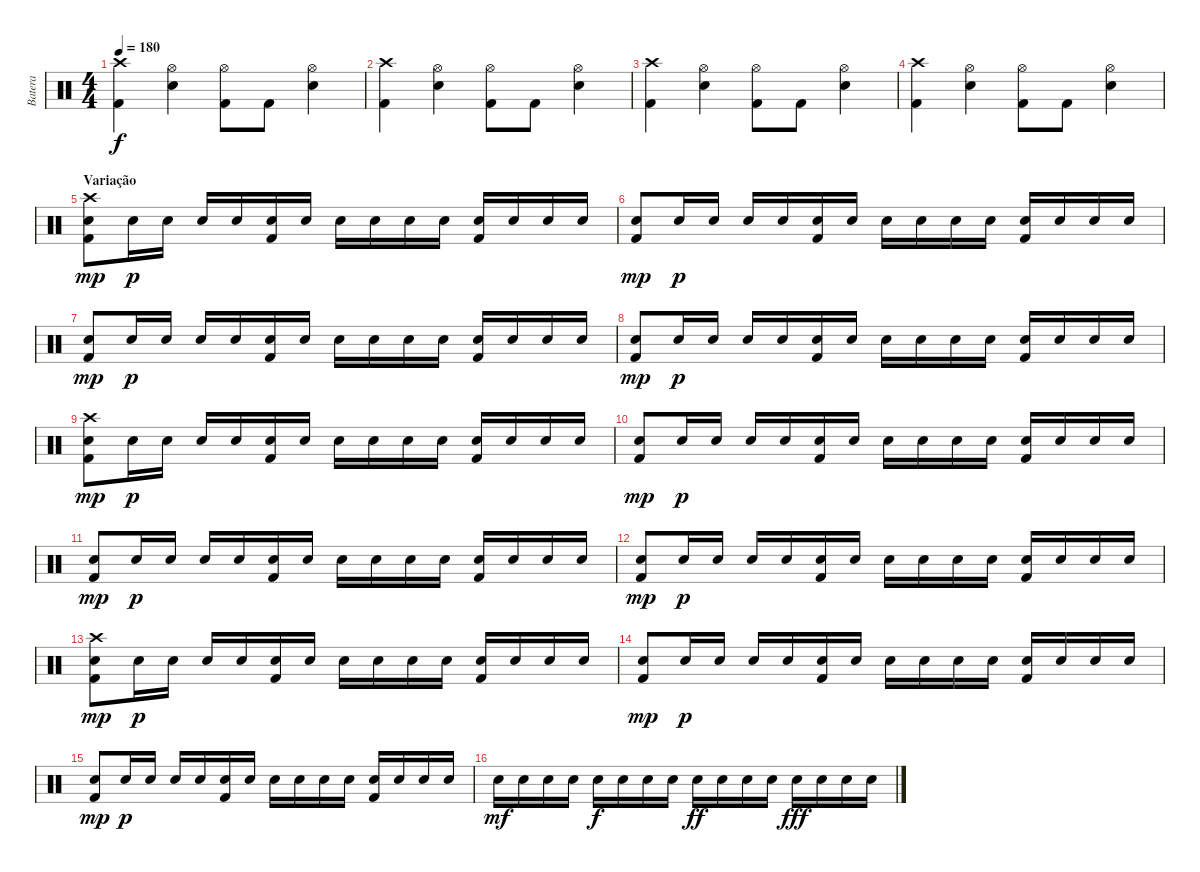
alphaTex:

\track ("Batera" "Batera") {instrument percussion}
\staff {score}
\articulation defaults
\ts (4 4)
\tempo 180
\clef neutral
\ks c
("Crash high (hit)" "Kick (hit) 2").4{dy f} ("Hi-Hat (open)" "Snare (hit) 2").4 ("Hi-Hat (open)" "Kick (hit) 2").8 "Kick (hit) 2".8 ("Hi-Hat (open)" "Snare (hit) 2").4 |
("Crash high (hit)" "Kick (hit) 2").4 ("Hi-Hat (open)" "Snare (hit) 2").4 ("Hi-Hat (open)" "Kick (hit) 2").8 "Kick (hit) 2".8 ("Hi-Hat (open)" "Snare (hit) 2").4 |
("Crash high (hit)" "Kick (hit) 2").4 ("Hi-Hat (open)" "Snare (hit) 2").4 ("Hi-Hat (open)" "Kick (hit) 2").8 "Kick (hit) 2".8 ("Hi-Hat (open)" "Snare (hit) 2").4 |
("Crash high (hit)" "Kick (hit) 2").4 ("Hi-Hat (open)" "Snare (hit) 2").4 ("Hi-Hat (open)" "Kick (hit) 2").8 "Kick (hit) 2".8 ("Hi-Hat (open)" "Snare (hit) 2").4 |
\section ("" "Variação")
("Crash high (hit)" "Snare (hit) 2" "Kick (hit) 2").8{dy mp} "Snare (hit) 2".16{dy p} "Snare (hit) 2".16 "Snare (hit) 2".16 "Snare (hit) 2".16 ("Kick (hit) 2" "Snare (hit) 2").16 "Snare (hit) 2".16 "Snare (hit) 2".16 "Snare (hit) 2".16 "Snare (hit) 2".16 "Snare (hit) 2".16 ("Kick (hit) 2" "Snare (hit) 2").16 "Snare (hit) 2".16 "Snare (hit) 2".16 "Snare (hit) 2".16 |
("Snare (hit) 2" "Kick (hit) 2").8{dy mp} "Snare (hit) 2".16{dy p} "Snare (hit) 2".16 "Snare (hit) 2".16 "Snare (hit) 2".16 ("Kick (hit) 2" "Snare (hit) 2").16 "Snare (hit) 2".16 "Snare (hit) 2".16 "Snare (hit) 2".16 "Snare (hit) 2".16 "Snare (hit) 2".16 ("Kick (hit) 2" "Snare (hit) 2").16 "Snare (hit) 2".16 "Snare (hit) 2".16 "Snare (hit) 2".16 |
("Snare (hit) 2" "Kick (hit) 2").8{dy mp} "Snare (hit) 2".16{dy p} "Snare (hit) 2".16 "Snare (hit) 2".16 "Snare (hit) 2".16 ("Kick (hit) 2" "Snare (hit) 2").16 "Snare (hit) 2".16 "Snare (hit) 2".16 "Snare (hit) 2".16 "Snare (hit) 2".16 "Snare (hit) 2".16 ("Kick (hit) 2" "Snare (hit) 2").16 "Snare (hit) 2".16 "Snare (hit) 2".16 "Snare (hit) 2".16 |
("Snare (hit) 2" "Kick (hit) 2").8{dy mp} "Snare (hit) 2".16{dy p} "Snare (hit) 2".16 "Snare (hit) 2".16 "Snare (hit) 2".16 ("Kick (hit) 2" "Snare (hit) 2").16 "Snare (hit) 2".16 "Snare (hit) 2".16 "Snare (hit) 2".16 "Snare (hit) 2".16 "Snare (hit) 2".16 ("Kick (hit) 2" "Snare (hit) 2").16 "Snare (hit) 2".16 "Snare (hit) 2".16 "Snare (hit) 2".16 |
("Crash high (hit)" "Snare (hit) 2" "Kick (hit) 2").8{dy mp} "Snare (hit) 2".16{dy p} "Snare (hit) 2".16 "Snare (hit) 2".16 "Snare (hit) 2".16 ("Kick (hit) 2" "Snare (hit) 2").16 "Snare (hit) 2".16 "Snare (hit) 2".16 "Snare (hit) 2".16 "Snare (hit) 2".16 "Snare (hit) 2".16 ("Kick (hit) 2" "Snare (hit) 2").16 "Snare (hit) 2".16 "Snare (hit) 2".16 "Snare (hit) 2".16 |
("Snare (hit) 2" "Kick (hit) 2").8{dy mp} "Snare (hit) 2".16{dy p} "Snare (hit) 2".16 "Snare (hit) 2".16 "Snare (hit) 2".16 ("Kick (hit) 2" "Snare (hit) 2").16 "Snare (hit) 2".16 "Snare (hit) 2".16 "Snare (hit) 2".16 "Snare (hit) 2".16 "Snare (hit) 2".16 ("Kick (hit) 2" "Snare (hit) 2").16 "Snare (hit) 2".16 "Snare (hit) 2".16 "Snare (hit) 2".16 |
("Snare (hit) 2" "Kick (hit) 2").8{dy mp} "Snare (hit) 2".16{dy p} "Snare (hit) 2".16 "Snare (hit) 2".16 "Snare (hit) 2".16 ("Kick (hit) 2" "Snare (hit) 2").16 "Snare (hit) 2".16 "Snare (hit) 2".16 "Snare (hit) 2".16 "Snare (hit) 2".16 "Snare (hit) 2".16 ("Kick (hit) 2" "Snare (hit) 2").16 "Snare (hit) 2".16 "Snare (hit) 2".16 "Snare (hit) 2".16 |
("Snare (hit) 2" "Kick (hit) 2").8{dy mp} "Snare (hit) 2".16{dy p} "Snare (hit) 2".16 "Snare (hit) 2".16 "Snare (hit) 2".16 ("Kick (hit) 2" "Snare (hit) 2").16 "Snare (hit) 2".16 "Snare (hit) 2".16 "Snare (hit) 2".16 "Snare (hit) 2".16 "Snare (hit) 2".16 ("Kick (hit) 2" "Snare (hit) 2").16 "Snare (hit) 2".16 "Snare (hit) 2".16 "Snare (hit) 2".16 |
("Crash high (hit)" "Snare (hit) 2" "Kick (hit) 2").8{dy mp} "Snare (hit) 2".16{dy p} "Snare (hit) 2".16 "Snare (hit) 2".16 "Snare (hit) 2".16 ("Kick (hit) 2" "Snare (hit) 2").16 "Snare (hit) 2".16 "Snare (hit) 2".16 "Snare (hit) 2".16 "Snare (hit) 2".16 "Snare (hit) 2".16 ("Kick (hit) 2" "Snare (hit) 2").16 "Snare (hit) 2".16 "Snare (hit) 2".16 "Snare (hit) 2".16 |
("Snare (hit) 2" "Kick (hit) 2").8{dy mp} "Snare (hit) 2".16{dy p} "Snare (hit) 2".16 "Snare (hit) 2".16 "Snare (hit) 2".16 ("Kick (hit) 2" "Snare (hit) 2").16 "Snare (hit) 2".16 "Snare (hit) 2".16 "Snare (hit) 2".16 "Snare (hit) 2".16 "Snare (hit) 2".16 ("Kick (hit) 2" "Snare (hit) 2").16 "Snare (hit) 2".16 "Snare (hit) 2".16 "Snare (hit) 2".16 |
("Snare (hit) 2" "Kick (hit) 2").8{dy mp} "Snare (hit) 2".16{dy p} "Snare (hit) 2".16 "Snare (hit) 2".16 "Snare (hit) 2".16 ("Kick (hit) 2" "Snare (hit) 2").16 "Snare (hit) 2".16 "Snare (hit) 2".16 "Snare (hit) 2".16 "Snare (hit) 2".16 "Snare (hit) 2".16 ("Kick (hit) 2" "Snare (hit) 2").16 "Snare (hit) 2".16 "Snare (hit) 2".16 "Snare (hit) 2".16 |
"Snare (hit) 2".16{dy mf} "Snare (hit) 2".16 "Snare (hit) 2".16 "Snare (hit) 2".16 "Snare (hit) 2".16{dy f} "Snare (hit) 2".16 "Snare (hit) 2".16 "Snare (hit) 2".16 "Snare (hit) 2".16{dy ff} "Snare (hit) 2".16 "Snare (hit) 2".16 "Snare (hit) 2".16 "Snare (hit) 2".16{dy fff} "Snare (hit) 2".16 "Snare (hit) 2".16 "Snare (hit) 2".16
